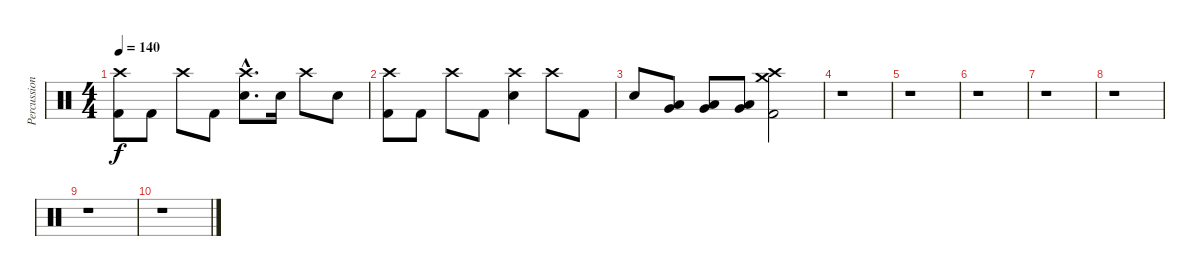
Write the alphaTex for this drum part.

\track ("Percussions" "Percussion") {instrument percussion}
\staff {score}
\articulation defaults
\ts (4 4)
\tempo 140
\clef neutral
\ks c
("Kick (hit) 2" "Crash high (hit)").8{dy f} "Kick (hit) 2".8 "Crash high (hit)".8 "Kick (hit) 2".8 ("Electric Snare (hit)"{hac} "Crash high (hit)"{hac}).8{d} "Electric Snare (hit)".16 "Crash high (hit)".8 "Electric Snare (hit)".8 |
("Kick (hit) 2" "Crash high (hit)").8 "Kick (hit) 2".8 "Crash high (hit)".8 "Kick (hit) 2".8 ("Electric Snare (hit)" "Crash high (hit)").4 "Crash high (hit)".8 "Kick (hit) 2".8 |
"Electric Snare (hit)".8 ("Very Low Tom (hit)" "Low Tom (hit)").8 ("Very Low Tom (hit)" "Low Tom (hit)").8 ("Very Low Tom (hit)" "Low Tom (hit)").8 ("Kick (hit) 2" "Crash medium (hit)" "Crash high (hit)").2 |
r.1 |
r.1 |
r.1 |
r.1 |
r.1 |
r.1 |
r.1
